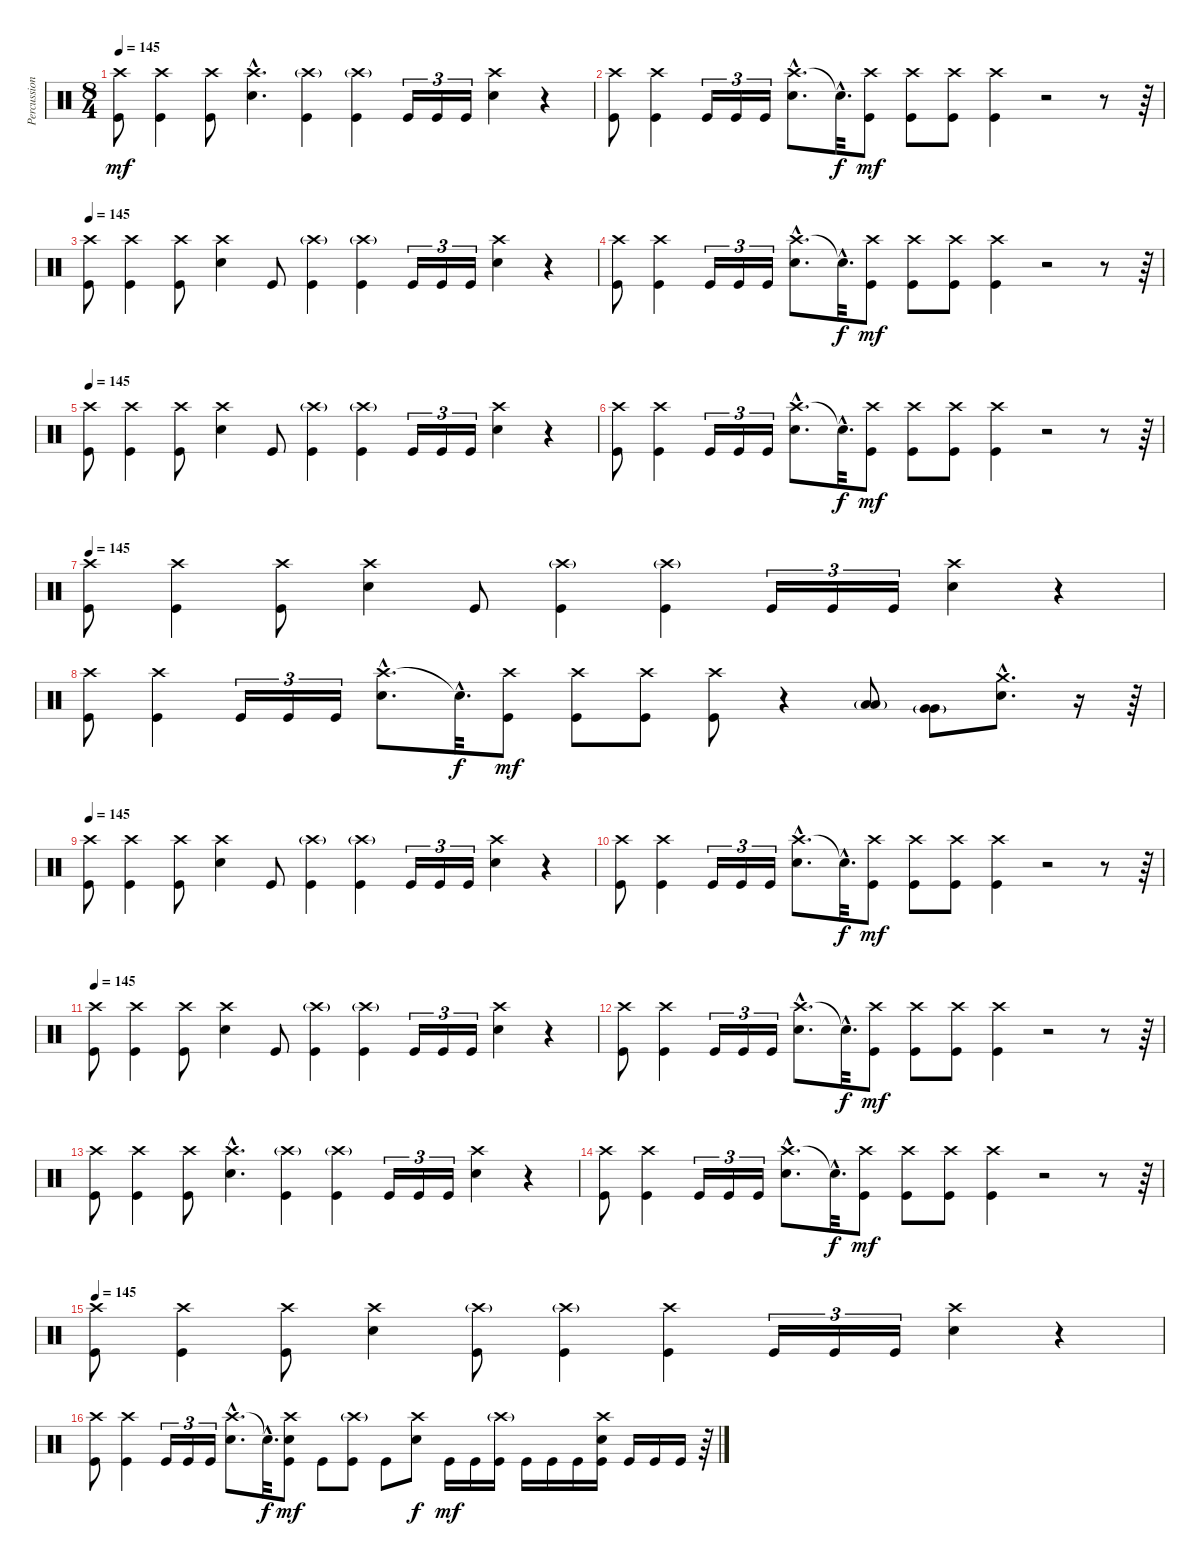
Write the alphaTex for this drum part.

\track ("Percussion" "Percussion") {instrument percussion}
\staff {score}
\articulation defaults
\ts (8 4)
\tempo 177
\tempo 145
\clef neutral
\ks c
("Crash high (hit)" "Kick (hit)").8{dy mf} ("Crash high (hit)" "Kick (hit)").4 ("Crash high (hit)" "Kick (hit)").8 ("Crash high (hit)"{hac} "Electric Snare (hit)"{hac}).4{d} ("Crash high (hit)"{g} "Kick (hit)").4 ("Crash high (hit)"{g} "Kick (hit)").4 "Kick (hit)".16{tu (3 2)} "Kick (hit)".16{tu (3 2)} "Kick (hit)".16{tu (3 2)} ("Crash high (hit)" "Electric Snare (hit)").4 r.4 |
("Crash high (hit)" "Kick (hit)").8 ("Crash high (hit)" "Kick (hit)").4 "Kick (hit)".16{tu (3 2)} "Kick (hit)".16{tu (3 2)} "Kick (hit)".16{tu (3 2)} ("Crash high (hit)"{hac} "Electric Snare (hit)"{hac}).8{d} "Snare (hit)"{hac t}.32{d dy f} ("Crash high (hit)" "Kick (hit)").8{dy mf} ("Crash high (hit)" "Kick (hit)").8 ("Crash high (hit)" "Kick (hit)").8 ("Crash high (hit)" "Kick (hit)").4 r.2 r.8 r.64 |
\tempo 145
("Crash high (hit)" "Kick (hit)").8 ("Crash high (hit)" "Kick (hit)").4 ("Crash high (hit)" "Kick (hit)").8 ("Crash high (hit)" "Electric Snare (hit)").4 "Kick (hit)".8 ("Crash high (hit)"{g} "Kick (hit)").4 ("Crash high (hit)"{g} "Kick (hit)").4 "Kick (hit)".16{tu (3 2)} "Kick (hit)".16{tu (3 2)} "Kick (hit)".16{tu (3 2)} ("Crash high (hit)" "Electric Snare (hit)").4 r.4 |
("Crash high (hit)" "Kick (hit)").8 ("Crash high (hit)" "Kick (hit)").4 "Kick (hit)".16{tu (3 2)} "Kick (hit)".16{tu (3 2)} "Kick (hit)".16{tu (3 2)} ("Crash high (hit)"{hac} "Electric Snare (hit)"{hac}).8{d} "Snare (hit)"{hac t}.32{d dy f} ("Crash high (hit)" "Kick (hit)").8{dy mf} ("Crash high (hit)" "Kick (hit)").8 ("Crash high (hit)" "Kick (hit)").8 ("Crash high (hit)" "Kick (hit)").4 r.2 r.8 r.64 |
\tempo 145
("Crash high (hit)" "Kick (hit)").8 ("Crash high (hit)" "Kick (hit)").4 ("Crash high (hit)" "Kick (hit)").8 ("Crash high (hit)" "Electric Snare (hit)").4 "Kick (hit)".8 ("Crash high (hit)"{g} "Kick (hit)").4 ("Crash high (hit)"{g} "Kick (hit)").4 "Kick (hit)".16{tu (3 2)} "Kick (hit)".16{tu (3 2)} "Kick (hit)".16{tu (3 2)} ("Crash high (hit)" "Electric Snare (hit)").4 r.4 |
("Crash high (hit)" "Kick (hit)").8 ("Crash high (hit)" "Kick (hit)").4 "Kick (hit)".16{tu (3 2)} "Kick (hit)".16{tu (3 2)} "Kick (hit)".16{tu (3 2)} ("Crash high (hit)"{hac} "Electric Snare (hit)"{hac}).8{d} "Snare (hit)"{hac t}.32{d dy f} ("Crash high (hit)" "Kick (hit)").8{dy mf} ("Crash high (hit)" "Kick (hit)").8 ("Crash high (hit)" "Kick (hit)").8 ("Crash high (hit)" "Kick (hit)").4 r.2 r.8 r.64 |
\tempo 145
("Crash high (hit)" "Kick (hit)").8 ("Crash high (hit)" "Kick (hit)").4 ("Crash high (hit)" "Kick (hit)").8 ("Crash high (hit)" "Electric Snare (hit)").4 "Kick (hit)".8 ("Crash high (hit)"{g} "Kick (hit)").4 ("Crash high (hit)"{g} "Kick (hit)").4 "Kick (hit)".16{tu (3 2)} "Kick (hit)".16{tu (3 2)} "Kick (hit)".16{tu (3 2)} ("Crash high (hit)" "Electric Snare (hit)").4 r.4 |
("Crash high (hit)" "Kick (hit)").8 ("Crash high (hit)" "Kick (hit)").4 "Kick (hit)".16{tu (3 2)} "Kick (hit)".16{tu (3 2)} "Kick (hit)".16{tu (3 2)} ("Crash high (hit)"{hac} "Electric Snare (hit)"{hac}).8{d} "Snare (hit)"{hac t}.32{d dy f} ("Crash high (hit)" "Kick (hit)").8{dy mf} ("Crash high (hit)" "Kick (hit)").8 ("Crash high (hit)" "Kick (hit)").8 ("Crash high (hit)" "Kick (hit)").8 r.4 ("Low Tom (hit)"{g} "Low Tom (hit)").8 ("Very Low Tom (hit)"{g} "Very Low Tom (hit)").8 ("Crash medium (hit)"{hac} "Electric Snare (hit)"{hac}).8{d} r.16 r.64 |
\tempo 145
("Crash high (hit)" "Kick (hit)").8 ("Crash high (hit)" "Kick (hit)").4 ("Crash high (hit)" "Kick (hit)").8 ("Crash high (hit)" "Electric Snare (hit)").4 "Kick (hit)".8 ("Crash high (hit)"{g} "Kick (hit)").4 ("Crash high (hit)"{g} "Kick (hit)").4 "Kick (hit)".16{tu (3 2)} "Kick (hit)".16{tu (3 2)} "Kick (hit)".16{tu (3 2)} ("Crash high (hit)" "Electric Snare (hit)").4 r.4 |
("Crash high (hit)" "Kick (hit)").8 ("Crash high (hit)" "Kick (hit)").4 "Kick (hit)".16{tu (3 2)} "Kick (hit)".16{tu (3 2)} "Kick (hit)".16{tu (3 2)} ("Crash high (hit)"{hac} "Electric Snare (hit)"{hac}).8{d} "Snare (hit)"{hac t}.32{d dy f} ("Crash high (hit)" "Kick (hit)").8{dy mf} ("Crash high (hit)" "Kick (hit)").8 ("Crash high (hit)" "Kick (hit)").8 ("Crash high (hit)" "Kick (hit)").4 r.2 r.8 r.64 |
\tempo 145
("Crash high (hit)" "Kick (hit)").8 ("Crash high (hit)" "Kick (hit)").4 ("Crash high (hit)" "Kick (hit)").8 ("Crash high (hit)" "Electric Snare (hit)").4 "Kick (hit)".8 ("Crash high (hit)"{g} "Kick (hit)").4 ("Crash high (hit)"{g} "Kick (hit)").4 "Kick (hit)".16{tu (3 2)} "Kick (hit)".16{tu (3 2)} "Kick (hit)".16{tu (3 2)} ("Crash high (hit)" "Electric Snare (hit)").4 r.4 |
("Crash high (hit)" "Kick (hit)").8 ("Crash high (hit)" "Kick (hit)").4 "Kick (hit)".16{tu (3 2)} "Kick (hit)".16{tu (3 2)} "Kick (hit)".16{tu (3 2)} ("Crash high (hit)"{hac} "Electric Snare (hit)"{hac}).8{d} "Snare (hit)"{hac t}.32{d dy f} ("Crash high (hit)" "Kick (hit)").8{dy mf} ("Crash high (hit)" "Kick (hit)").8 ("Crash high (hit)" "Kick (hit)").8 ("Crash high (hit)" "Kick (hit)").4 r.2 r.8 r.64 |
("Crash high (hit)" "Kick (hit)").8 ("Crash high (hit)" "Kick (hit)").4 ("Crash high (hit)" "Kick (hit)").8 ("Crash high (hit)"{hac} "Electric Snare (hit)"{hac}).4{d} ("Crash high (hit)"{g} "Kick (hit)").4 ("Crash high (hit)"{g} "Kick (hit)").4 "Kick (hit)".16{tu (3 2)} "Kick (hit)".16{tu (3 2)} "Kick (hit)".16{tu (3 2)} ("Crash high (hit)" "Electric Snare (hit)").4 r.4 |
("Crash high (hit)" "Kick (hit)").8 ("Crash high (hit)" "Kick (hit)").4 "Kick (hit)".16{tu (3 2)} "Kick (hit)".16{tu (3 2)} "Kick (hit)".16{tu (3 2)} ("Crash high (hit)"{hac} "Electric Snare (hit)"{hac}).8{d} "Snare (hit)"{hac t}.32{d dy f} ("Crash high (hit)" "Kick (hit)").8{dy mf} ("Crash high (hit)" "Kick (hit)").8 ("Crash high (hit)" "Kick (hit)").8 ("Crash high (hit)" "Kick (hit)").4 r.2 r.8 r.64 |
\tempo 145
("Crash high (hit)" "Kick (hit)").8 ("Crash high (hit)" "Kick (hit)").4 ("Crash high (hit)" "Kick (hit)").8 ("Crash high (hit)" "Electric Snare (hit)").4 ("Crash high (hit)"{g} "Kick (hit)").8 ("Crash high (hit)"{g} "Kick (hit)").4 ("Crash high (hit)" "Kick (hit)").4 "Kick (hit)".16{tu (3 2)} "Kick (hit)".16{tu (3 2)} "Kick (hit)".16{tu (3 2)} ("Crash high (hit)" "Electric Snare (hit)").4 r.4 |
("Crash high (hit)" "Kick (hit)").8 ("Crash high (hit)" "Kick (hit)").4 "Kick (hit)".16{tu (3 2)} "Kick (hit)".16{tu (3 2)} "Kick (hit)".16{tu (3 2)} ("Crash high (hit)"{hac} "Electric Snare (hit)"{hac}).8{d} "Snare (hit)"{hac t}.32{d dy f} ("Crash high (hit)" "Electric Snare (hit)" "Kick (hit)").8{dy mf} "Kick (hit)".8 ("Crash high (hit)"{g} "Kick (hit)").8 "Kick (hit)".8 ("Crash high (hit)" "Electric Snare (hit)").8{dy f} "Kick (hit)".16{dy mf} "Kick (hit)".16 ("Crash high (hit)"{g} "Kick (hit)").16 "Kick (hit)".16 "Kick (hit)".16 "Kick (hit)".16 ("Crash high (hit)" "Electric Snare (hit)" "Kick (hit)").16 "Kick (hit)".16 "Kick (hit)".16 "Kick (hit)".16 r.64
